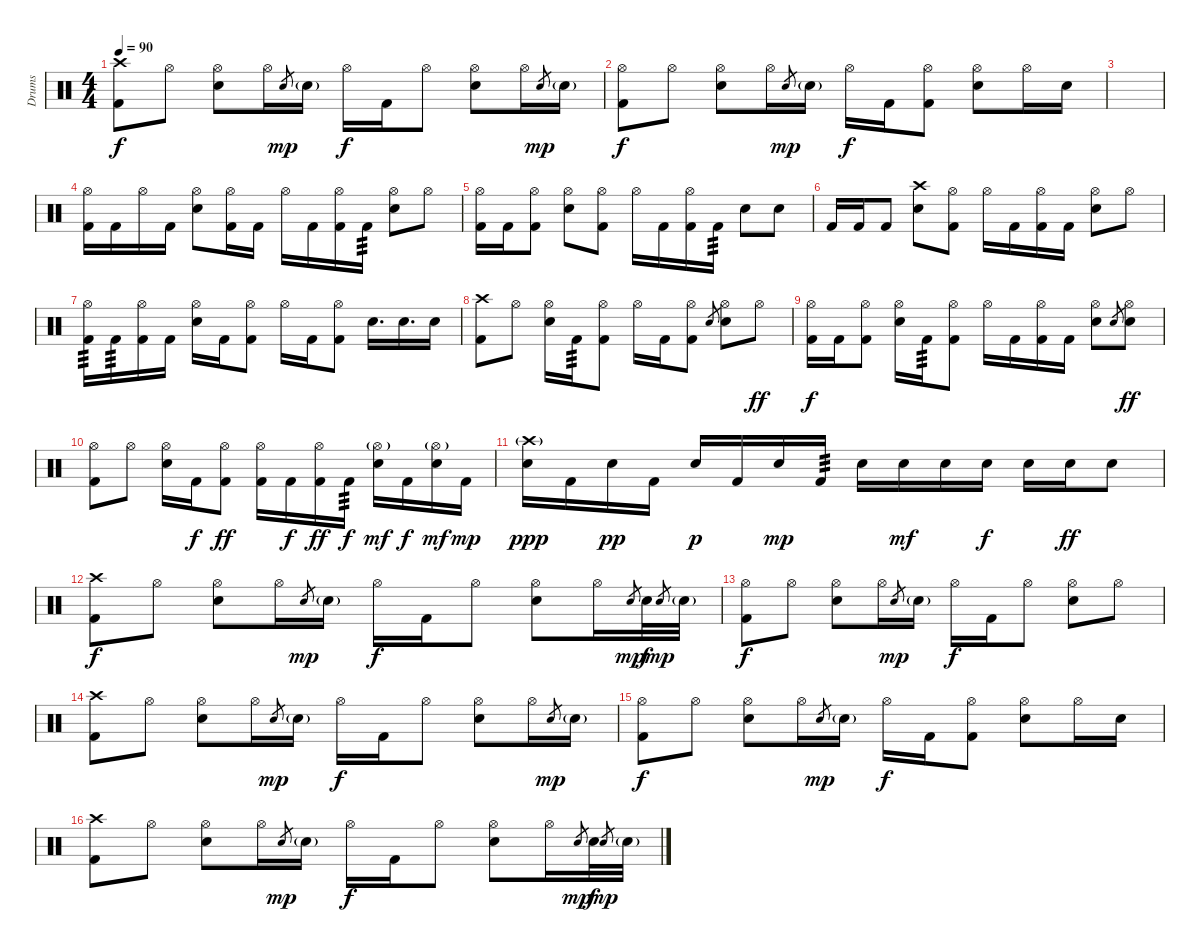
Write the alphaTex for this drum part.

\track ("Drums" "Drums") {instrument percussion}
\staff {score}
\articulation defaults
\ts (4 4)
\tempo 90
\clef neutral
\ks c
("Crash high (hit)" "Kick (hit) 2").8{dy f} "Hi-Hat (open)".8 ("Hi-Hat (open)" "Electric Snare (hit)").8 "Hi-Hat (open)".16 "Electric Snare (hit)"{x}.8{gr dy mp} "Electric Snare (hit)"{g}.16 "Hi-Hat (open)".16{dy f} "Kick (hit) 2".16 "Hi-Hat (open)".8 ("Hi-Hat (open)" "Electric Snare (hit)").8 "Hi-Hat (open)".16 "Electric Snare (hit)".8{gr dy mp} "Electric Snare (hit)"{g}.16 |
("Hi-Hat (open)" "Kick (hit) 2").8{dy f} "Hi-Hat (open)".8 ("Hi-Hat (open)" "Electric Snare (hit)").8 "Hi-Hat (open)".16 "Electric Snare (hit)"{x}.8{gr dy mp} "Electric Snare (hit)"{g}.16 "Hi-Hat (open)".16{dy f} "Kick (hit) 2".16 ("Hi-Hat (open)" "Kick (hit) 2").8 ("Hi-Hat (open)" "Electric Snare (hit)").8 "Hi-Hat (open)".16 "Electric Snare (hit)".16 |
|
("Hi-Hat (open)" "Kick (hit) 2").16 "Kick (hit) 2".16 "Hi-Hat (open)".16 "Kick (hit) 2".16 ("Hi-Hat (open)" "Snare (hit) 2").8 ("Hi-Hat (open)" "Kick (hit) 2").16 "Kick (hit) 2".16 "Hi-Hat (open)".16 "Kick (hit) 2".16 ("Hi-Hat (open)" "Kick (hit) 2").16 "Kick (hit) 2".16{tp 3} ("Hi-Hat (open)" "Snare (hit) 2").8 "Hi-Hat (open)".8 |
("Hi-Hat (open)" "Kick (hit) 2").16 "Kick (hit) 2".16 ("Hi-Hat (open)" "Kick (hit) 2").8 ("Hi-Hat (open)" "Snare (hit) 2").8 ("Hi-Hat (open)" "Kick (hit) 2").8 "Hi-Hat (open)".16 "Kick (hit) 2".16 ("Hi-Hat (open)" "Kick (hit) 2").16 "Kick (hit) 2".16{tp 3} "Snare (hit) 2".8 "Snare (hit) 2".8 |
"Kick (hit) 2".16 "Kick (hit) 2".16 "Kick (hit) 2".8 ("Crash high (hit)" "Snare (hit) 2").8 ("Hi-Hat (open)" "Kick (hit) 2").8 "Hi-Hat (open)".16 "Kick (hit) 2".16 ("Hi-Hat (open)" "Kick (hit) 2").16 "Kick (hit) 2".16 ("Hi-Hat (open)" "Snare (hit) 2").8 "Hi-Hat (open)".8 |
("Hi-Hat (open)" "Kick (hit) 2").16{tp 3} "Kick (hit) 2".16{tp 3} ("Hi-Hat (open)" "Kick (hit) 2").16 "Kick (hit) 2".16 ("Hi-Hat (open)" "Snare (hit) 2").16 "Kick (hit) 2".16 ("Hi-Hat (open)" "Kick (hit) 2").8 "Hi-Hat (open)".16 "Kick (hit) 2".16 ("Hi-Hat (open)" "Kick (hit) 2").8 "Snare (hit) 2".16{d} "Snare (hit) 2".16{d} "Snare (hit) 2".16 |
("Crash high (hit)" "Kick (hit) 2").8 "Hi-Hat (open)".8 ("Hi-Hat (open)" "Snare (hit) 2").16 "Kick (hit) 2".16{tp 3} ("Hi-Hat (open)" "Kick (hit) 2").8 "Hi-Hat (open)".16 "Kick (hit) 2".16 ("Hi-Hat (open)" "Kick (hit) 2").8 "Snare (hit) 2".8{gr} ("Hi-Hat (open)" "Snare (hit) 2").8 "Hi-Hat (open)".8{dy ff} |
("Hi-Hat (open)" "Kick (hit) 2").16{dy f} "Kick (hit) 2".16 ("Hi-Hat (open)" "Kick (hit) 2").8 ("Hi-Hat (open)" "Snare (hit) 2").16 "Kick (hit) 2".16{tp 3} ("Hi-Hat (open)" "Kick (hit) 2").8 "Hi-Hat (open)".16 "Kick (hit) 2".16 ("Hi-Hat (open)" "Kick (hit) 2").16 "Kick (hit) 2".16 ("Hi-Hat (open)" "Snare (hit) 2").8 "Snare (hit) 2".8{gr} ("Hi-Hat (open)" "Snare (hit) 2").8{dy ff} |
("Hi-Hat (open)" "Kick (hit) 2").8 "Hi-Hat (open)".8 ("Hi-Hat (open)" "Snare (hit) 2").16 "Kick (hit) 2".16{dy f} ("Hi-Hat (open)" "Kick (hit) 2").8{dy ff} ("Hi-Hat (open)" "Kick (hit) 2").16 "Kick (hit) 2".16{dy f} ("Hi-Hat (open)" "Kick (hit) 2").16{dy ff} "Kick (hit) 2".16{tp 3 dy f} ("Hi-Hat (open)"{g} "Snare (hit) 2").16{dy mf} "Kick (hit) 2".16{dy f} ("Hi-Hat (open)"{g} "Snare (hit) 2").16{dy mf} "Kick (hit) 2".16{dy mp} |
("Crash high (hit)"{g} "Snare (hit) 2").16{dy ppp} "Kick (hit) 2".16 "Snare (hit) 2".16{dy pp} "Kick (hit) 2".16 "Snare (hit) 2".16{dy p} "Kick (hit) 2".16 "Snare (hit) 2".16{dy mp} "Kick (hit) 2".16{tp 3} "Snare (hit) 2".16 "Snare (hit) 2".16{dy mf} "Snare (hit) 2".16 "Snare (hit) 2".16{dy f} "Snare (hit) 2".16 "Snare (hit) 2".16{dy ff} "Snare (hit) 2".8 |
("Crash high (hit)" "Kick (hit) 2").8{dy f} "Hi-Hat (open)".8 ("Hi-Hat (open)" "Electric Snare (hit)").8 "Hi-Hat (open)".16 "Electric Snare (hit)"{x}.8{gr dy mp} "Electric Snare (hit)"{g}.16 "Hi-Hat (open)".16{dy f} "Kick (hit) 2".16 "Hi-Hat (open)".8 ("Hi-Hat (open)" "Electric Snare (hit)").8 "Hi-Hat (open)".16 "Electric Snare (hit)"{x}.8{gr dy mp} "Electric Snare (hit)".32{dy f} "Electric Snare (hit)"{x}.8{gr dy mp} "Electric Snare (hit)"{g}.32 |
("Hi-Hat (open)" "Kick (hit) 2").8{dy f} "Hi-Hat (open)".8 ("Hi-Hat (open)" "Electric Snare (hit)").8 "Hi-Hat (open)".16 "Electric Snare (hit)"{x}.8{gr dy mp} "Electric Snare (hit)"{g}.16 "Hi-Hat (open)".16{dy f} "Kick (hit) 2".16 "Hi-Hat (open)".8 ("Hi-Hat (open)" "Electric Snare (hit)").8 "Hi-Hat (open)".8 |
("Crash high (hit)" "Kick (hit) 2").8 "Hi-Hat (open)".8 ("Hi-Hat (open)" "Electric Snare (hit)").8 "Hi-Hat (open)".16 "Electric Snare (hit)"{x}.8{gr dy mp} "Electric Snare (hit)"{g}.16 "Hi-Hat (open)".16{dy f} "Kick (hit) 2".16 "Hi-Hat (open)".8 ("Hi-Hat (open)" "Electric Snare (hit)").8 "Hi-Hat (open)".16 "Electric Snare (hit)".8{gr dy mp} "Electric Snare (hit)"{g}.16 |
("Hi-Hat (open)" "Kick (hit) 2").8{dy f} "Hi-Hat (open)".8 ("Hi-Hat (open)" "Electric Snare (hit)").8 "Hi-Hat (open)".16 "Electric Snare (hit)"{x}.8{gr dy mp} "Electric Snare (hit)"{g}.16 "Hi-Hat (open)".16{dy f} "Kick (hit) 2".16 ("Hi-Hat (open)" "Kick (hit) 2").8 ("Hi-Hat (open)" "Electric Snare (hit)").8 "Hi-Hat (open)".16 "Electric Snare (hit)".16 |
("Crash high (hit)" "Kick (hit) 2").8 "Hi-Hat (open)".8 ("Hi-Hat (open)" "Electric Snare (hit)").8 "Hi-Hat (open)".16 "Electric Snare (hit)"{x}.8{gr dy mp} "Electric Snare (hit)"{g}.16 "Hi-Hat (open)".16{dy f} "Kick (hit) 2".16 "Hi-Hat (open)".8 ("Hi-Hat (open)" "Electric Snare (hit)").8 "Hi-Hat (open)".16 "Electric Snare (hit)"{x}.8{gr dy mp} "Electric Snare (hit)".32{dy f} "Electric Snare (hit)"{x}.8{gr dy mp} "Electric Snare (hit)"{g}.32
